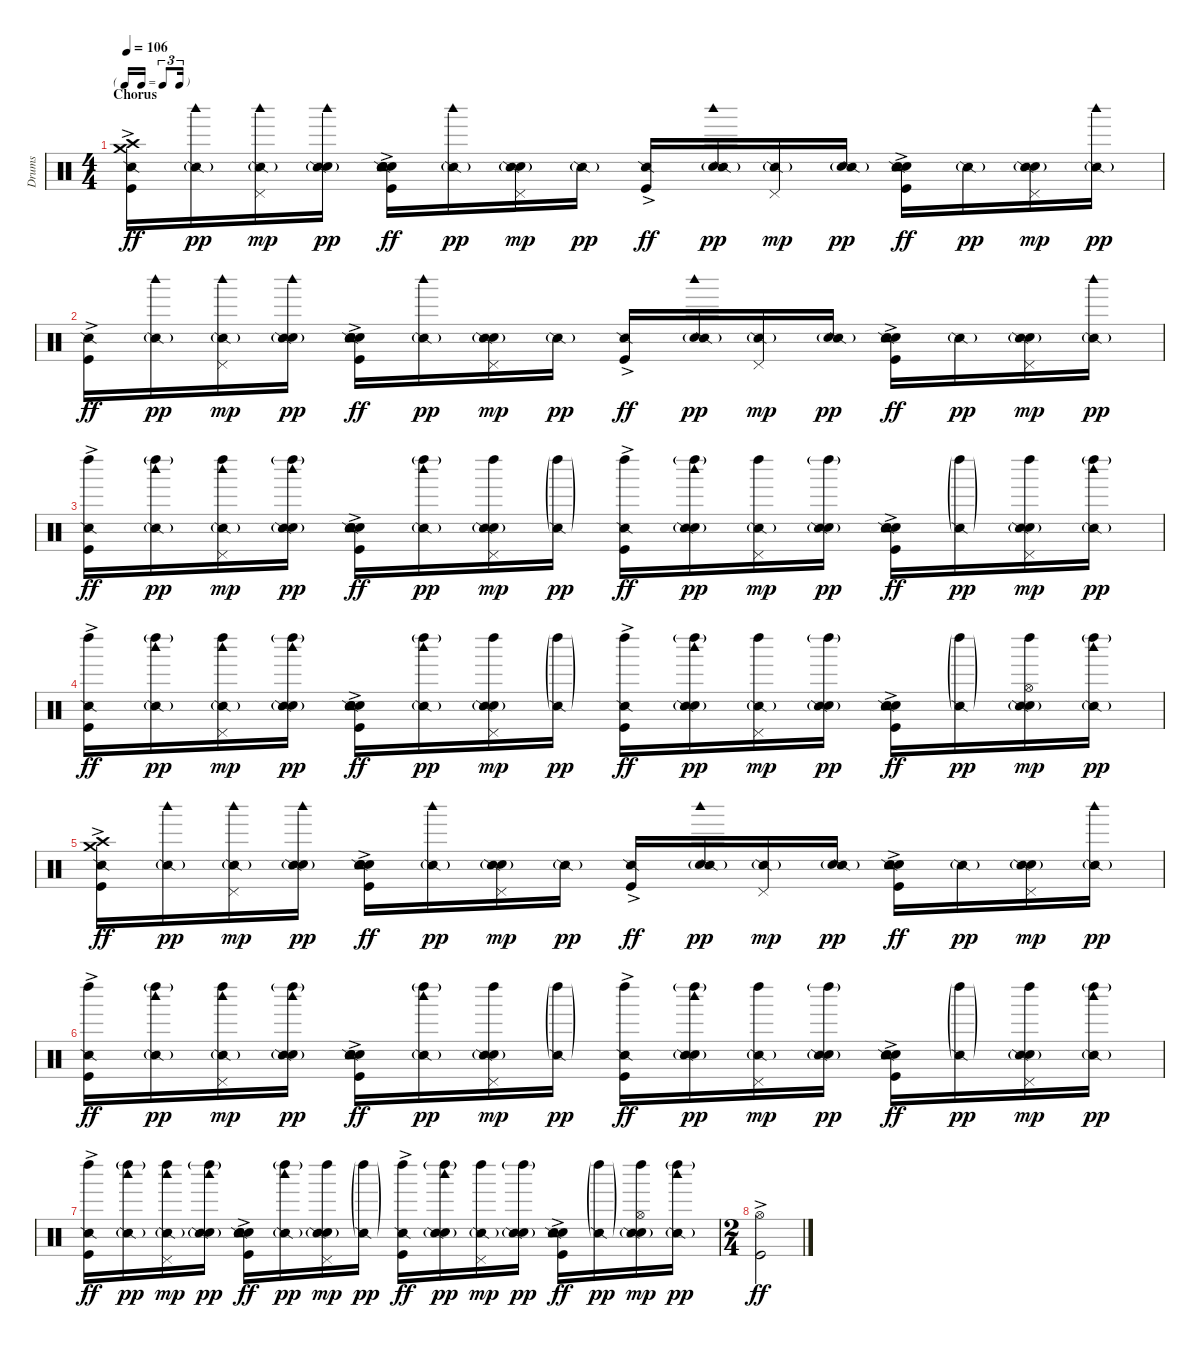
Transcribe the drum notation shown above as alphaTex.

\track ("Drums" "Drums") {instrument percussion}
\staff {score}
\articulation defaults
\ts (4 4)
\tf triplet16th
\section ("" "Chorus")
\tempo 106
\clef neutral
\ks c
("Kick (hit)"{ac} "Crash high (hit)" "Crash medium (hit)" "Snare (side stick) 2").16{dy ff} ("Woodblock high (hit)" "Snare (side stick) 2"{g}).16{dy pp} ("Pedal Hi-Hat (hit)" "Woodblock high (hit)" "Snare (side stick) 2"{g}).16{dy mp} ("Hand Clap (hit)" "Woodblock high (hit)" "Snare (side stick) 2"{g}).16{dy pp} ("Kick (hit)"{ac} "Hand Clap (hit)" "Snare (hit) 2"{ac} "Electric Snare (hit)" "Tambourine (hit)" "Snare (side stick) 2").16{dy ff} ("Woodblock high (hit)" "Snare (side stick) 2"{g}).16{dy pp} ("Hand Clap (hit)" "Pedal Hi-Hat (hit)" "Snare (side stick) 2"{g}).16{dy mp} "Snare (side stick) 2"{g}.16{dy pp} ("Kick (hit)"{ac} "Snare (side stick) 2").16{dy ff} ("Hand Clap (hit)" "Woodblock high (hit)" "Snare (side stick) 2"{g}).16{dy pp} ("Pedal Hi-Hat (hit)" "Snare (side stick) 2"{g}).16{dy mp} ("Hand Clap (hit)" "Snare (side stick) 2"{g}).16{dy pp} ("Kick (hit)"{ac} "Snare (hit) 2"{ac} "Electric Snare (hit)" "Tambourine (hit)" "Snare (side stick) 2").16{dy ff} "Snare (side stick) 2"{g}.16{dy pp} ("Hand Clap (hit)" "Pedal Hi-Hat (hit)" "Snare (side stick) 2"{g}).16{dy mp} ("Woodblock high (hit)" "Snare (side stick) 2"{g}).16{dy pp} |
("Kick (hit)"{ac} "Snare (side stick) 2").16{dy ff} ("Woodblock high (hit)" "Snare (side stick) 2"{g}).16{dy pp} ("Pedal Hi-Hat (hit)" "Woodblock high (hit)" "Snare (side stick) 2"{g}).16{dy mp} ("Hand Clap (hit)" "Woodblock high (hit)" "Snare (side stick) 2"{g}).16{dy pp} ("Kick (hit)"{ac} "Hand Clap (hit)" "Snare (hit) 2"{ac} "Electric Snare (hit)" "Tambourine (hit)" "Snare (side stick) 2").16{dy ff} ("Woodblock high (hit)" "Snare (side stick) 2"{g}).16{dy pp} ("Hand Clap (hit)" "Pedal Hi-Hat (hit)" "Snare (side stick) 2"{g}).16{dy mp} "Snare (side stick) 2"{g}.16{dy pp} ("Kick (hit)"{ac} "Snare (side stick) 2").16{dy ff} ("Hand Clap (hit)" "Woodblock high (hit)" "Snare (side stick) 2"{g}).16{dy pp} ("Pedal Hi-Hat (hit)" "Snare (side stick) 2"{g}).16{dy mp} ("Hand Clap (hit)" "Snare (side stick) 2"{g}).16{dy pp} ("Kick (hit)"{ac} "Snare (hit) 2"{ac} "Electric Snare (hit)" "Tambourine (hit)" "Snare (side stick) 2").16{dy ff} "Snare (side stick) 2"{g}.16{dy pp} ("Hand Clap (hit)" "Pedal Hi-Hat (hit)" "Snare (side stick) 2"{g}).16{dy mp} ("Woodblock high (hit)" "Snare (side stick) 2"{g}).16{dy pp} |
("Kick (hit)"{ac} "Left Maraca (hit)" "Snare (side stick) 2").16{dy ff} ("Left Maraca (hit)"{g} "Woodblock high (hit)" "Snare (side stick) 2"{g}).16{dy pp} ("Left Maraca (hit)" "Pedal Hi-Hat (hit)" "Woodblock high (hit)" "Snare (side stick) 2"{g}).16{dy mp} ("Hand Clap (hit)" "Left Maraca (hit)"{g} "Woodblock high (hit)" "Snare (side stick) 2"{g}).16{dy pp} ("Kick (hit)"{ac} "Hand Clap (hit)" "Snare (hit) 2"{ac} "Electric Snare (hit)" "Tambourine (hit)" "Snare (side stick) 2").16{dy ff} ("Left Maraca (hit)"{g} "Woodblock high (hit)" "Snare (side stick) 2"{g}).16{dy pp} ("Hand Clap (hit)" "Left Maraca (hit)" "Pedal Hi-Hat (hit)" "Snare (side stick) 2"{g}).16{dy mp} ("Left Maraca (hit)"{g} "Snare (side stick) 2"{g}).16{dy pp} ("Kick (hit)"{ac} "Left Maraca (hit)" "Snare (side stick) 2").16{dy ff} ("Hand Clap (hit)" "Left Maraca (hit)"{g} "Woodblock high (hit)" "Snare (side stick) 2"{g}).16{dy pp} ("Left Maraca (hit)" "Pedal Hi-Hat (hit)" "Snare (side stick) 2"{g}).16{dy mp} ("Hand Clap (hit)" "Left Maraca (hit)"{g} "Snare (side stick) 2"{g}).16{dy pp} ("Kick (hit)"{ac} "Snare (hit) 2"{ac} "Electric Snare (hit)" "Tambourine (hit)" "Snare (side stick) 2").16{dy ff} ("Left Maraca (hit)"{g} "Snare (side stick) 2"{g}).16{dy pp} ("Hand Clap (hit)" "Left Maraca (hit)" "Pedal Hi-Hat (hit)" "Snare (side stick) 2"{g}).16{dy mp} ("Left Maraca (hit)"{g} "Woodblock high (hit)" "Snare (side stick) 2"{g}).16{dy pp} |
("Kick (hit)"{ac} "Left Maraca (hit)" "Snare (side stick) 2").16{dy ff} ("Left Maraca (hit)"{g} "Woodblock high (hit)" "Snare (side stick) 2"{g}).16{dy pp} ("Left Maraca (hit)" "Pedal Hi-Hat (hit)" "Woodblock high (hit)" "Snare (side stick) 2"{g}).16{dy mp} ("Hand Clap (hit)" "Left Maraca (hit)"{g} "Woodblock high (hit)" "Snare (side stick) 2"{g}).16{dy pp} ("Kick (hit)"{ac} "Hand Clap (hit)" "Snare (hit) 2"{ac} "Electric Snare (hit)" "Tambourine (hit)" "Snare (side stick) 2").16{dy ff} ("Left Maraca (hit)"{g} "Woodblock high (hit)" "Snare (side stick) 2"{g}).16{dy pp} ("Hand Clap (hit)" "Left Maraca (hit)" "Pedal Hi-Hat (hit)" "Snare (side stick) 2"{g}).16{dy mp} ("Left Maraca (hit)"{g} "Snare (side stick) 2"{g}).16{dy pp} ("Kick (hit)"{ac} "Left Maraca (hit)" "Snare (side stick) 2").16{dy ff} ("Hand Clap (hit)" "Left Maraca (hit)"{g} "Woodblock high (hit)" "Snare (side stick) 2"{g}).16{dy pp} ("Left Maraca (hit)" "Pedal Hi-Hat (hit)" "Snare (side stick) 2"{g}).16{dy mp} ("Hand Clap (hit)" "Left Maraca (hit)"{g} "Snare (side stick) 2"{g}).16{dy pp} ("Kick (hit)"{ac} "Snare (hit) 2"{ac} "Electric Snare (hit)" "Tambourine (hit)" "Snare (side stick) 2").16{dy ff} ("Left Maraca (hit)"{g} "Snare (side stick) 2"{g}).16{dy pp} ("Hand Clap (hit)" "Left Maraca (hit)" "Hi-Hat (open)" "Snare (side stick) 2"{g}).16{dy mp} ("Left Maraca (hit)"{g} "Woodblock high (hit)" "Snare (side stick) 2"{g}).16{dy pp} |
("Kick (hit)"{ac} "Crash high (hit)" "Crash medium (hit)" "Snare (side stick) 2").16{dy ff} ("Woodblock high (hit)" "Snare (side stick) 2"{g}).16{dy pp} ("Pedal Hi-Hat (hit)" "Woodblock high (hit)" "Snare (side stick) 2"{g}).16{dy mp} ("Hand Clap (hit)" "Woodblock high (hit)" "Snare (side stick) 2"{g}).16{dy pp} ("Kick (hit)"{ac} "Hand Clap (hit)" "Snare (hit) 2"{ac} "Electric Snare (hit)" "Tambourine (hit)" "Snare (side stick) 2").16{dy ff} ("Woodblock high (hit)" "Snare (side stick) 2"{g}).16{dy pp} ("Hand Clap (hit)" "Pedal Hi-Hat (hit)" "Snare (side stick) 2"{g}).16{dy mp} "Snare (side stick) 2"{g}.16{dy pp} ("Kick (hit)"{ac} "Snare (side stick) 2").16{dy ff} ("Hand Clap (hit)" "Woodblock high (hit)" "Snare (side stick) 2"{g}).16{dy pp} ("Pedal Hi-Hat (hit)" "Snare (side stick) 2"{g}).16{dy mp} ("Hand Clap (hit)" "Snare (side stick) 2"{g}).16{dy pp} ("Kick (hit)"{ac} "Snare (hit) 2"{ac} "Electric Snare (hit)" "Tambourine (hit)" "Snare (side stick) 2").16{dy ff} "Snare (side stick) 2"{g}.16{dy pp} ("Hand Clap (hit)" "Pedal Hi-Hat (hit)" "Snare (side stick) 2"{g}).16{dy mp} ("Woodblock high (hit)" "Snare (side stick) 2"{g}).16{dy pp} |
("Kick (hit)"{ac} "Left Maraca (hit)" "Snare (side stick) 2").16{dy ff} ("Left Maraca (hit)"{g} "Woodblock high (hit)" "Snare (side stick) 2"{g}).16{dy pp} ("Left Maraca (hit)" "Pedal Hi-Hat (hit)" "Woodblock high (hit)" "Snare (side stick) 2"{g}).16{dy mp} ("Hand Clap (hit)" "Left Maraca (hit)"{g} "Woodblock high (hit)" "Snare (side stick) 2"{g}).16{dy pp} ("Kick (hit)"{ac} "Hand Clap (hit)" "Snare (hit) 2"{ac} "Electric Snare (hit)" "Tambourine (hit)" "Snare (side stick) 2").16{dy ff} ("Left Maraca (hit)"{g} "Woodblock high (hit)" "Snare (side stick) 2"{g}).16{dy pp} ("Hand Clap (hit)" "Left Maraca (hit)" "Pedal Hi-Hat (hit)" "Snare (side stick) 2"{g}).16{dy mp} ("Left Maraca (hit)"{g} "Snare (side stick) 2"{g}).16{dy pp} ("Kick (hit)"{ac} "Left Maraca (hit)" "Snare (side stick) 2").16{dy ff} ("Hand Clap (hit)" "Left Maraca (hit)"{g} "Woodblock high (hit)" "Snare (side stick) 2"{g}).16{dy pp} ("Left Maraca (hit)" "Pedal Hi-Hat (hit)" "Snare (side stick) 2"{g}).16{dy mp} ("Hand Clap (hit)" "Left Maraca (hit)"{g} "Snare (side stick) 2"{g}).16{dy pp} ("Kick (hit)"{ac} "Snare (hit) 2"{ac} "Electric Snare (hit)" "Tambourine (hit)" "Snare (side stick) 2").16{dy ff} ("Left Maraca (hit)"{g} "Snare (side stick) 2"{g}).16{dy pp} ("Hand Clap (hit)" "Left Maraca (hit)" "Pedal Hi-Hat (hit)" "Snare (side stick) 2"{g}).16{dy mp} ("Left Maraca (hit)"{g} "Woodblock high (hit)" "Snare (side stick) 2"{g}).16{dy pp} |
("Kick (hit)"{ac} "Left Maraca (hit)" "Snare (side stick) 2").16{dy ff} ("Left Maraca (hit)"{g} "Woodblock high (hit)" "Snare (side stick) 2"{g}).16{dy pp} ("Left Maraca (hit)" "Pedal Hi-Hat (hit)" "Woodblock high (hit)" "Snare (side stick) 2"{g}).16{dy mp} ("Hand Clap (hit)" "Left Maraca (hit)"{g} "Woodblock high (hit)" "Snare (side stick) 2"{g}).16{dy pp} ("Kick (hit)"{ac} "Hand Clap (hit)" "Snare (hit) 2"{ac} "Electric Snare (hit)" "Tambourine (hit)" "Snare (side stick) 2").16{dy ff} ("Left Maraca (hit)"{g} "Woodblock high (hit)" "Snare (side stick) 2"{g}).16{dy pp} ("Hand Clap (hit)" "Left Maraca (hit)" "Pedal Hi-Hat (hit)" "Snare (side stick) 2"{g}).16{dy mp} ("Left Maraca (hit)"{g} "Snare (side stick) 2"{g}).16{dy pp} ("Kick (hit)"{ac} "Left Maraca (hit)" "Snare (side stick) 2").16{dy ff} ("Hand Clap (hit)" "Left Maraca (hit)"{g} "Woodblock high (hit)" "Snare (side stick) 2"{g}).16{dy pp} ("Left Maraca (hit)" "Pedal Hi-Hat (hit)" "Snare (side stick) 2"{g}).16{dy mp} ("Hand Clap (hit)" "Left Maraca (hit)"{g} "Snare (side stick) 2"{g}).16{dy pp} ("Kick (hit)"{ac} "Snare (hit) 2"{ac} "Electric Snare (hit)" "Tambourine (hit)" "Snare (side stick) 2").16{dy ff} ("Left Maraca (hit)"{g} "Snare (side stick) 2"{g}).16{dy pp} ("Hand Clap (hit)" "Left Maraca (hit)" "Hi-Hat (open)" "Snare (side stick) 2"{g}).16{dy mp} ("Left Maraca (hit)"{g} "Woodblock high (hit)" "Snare (side stick) 2"{g}).16{dy pp} |
\ts (2 4)
("Kick (hit)"{ac} "Hi-Hat (open)").2{dy ff}
